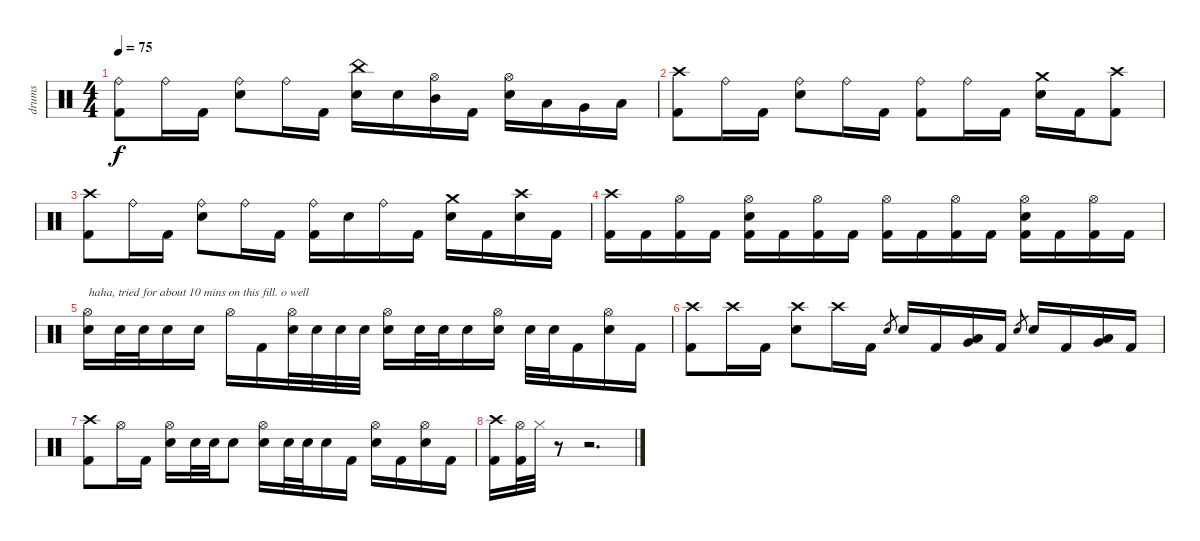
\track ("drums" "drums") {instrument percussion}
\staff {score}
\articulation defaults
\ts (4 4)
\tempo 75
\clef neutral
\ks c
("Ride (bell)" "Kick (hit) 2").8{dy f} "Ride (bell)".16 "Kick (hit) 2".16 ("Ride (bell)" "Electric Snare (hit)").8 "Ride (bell)".16 "Kick (hit) 2".16 ("China (hit)" "Electric Snare (hit)").16 "Electric Snare (hit)".16 ("Hi-Hat (open)" "Mid Tom (hit)").16 "Kick (hit) 2".16 ("Hi-Hat (open)" "Electric Snare (hit)").16 "Low Tom (hit)".16 "Very Low Tom (hit)".16 "Low Floor Tom (hit)".16 |
("Crash high (hit)" "Kick (hit) 2").8 "Ride (bell)".16 "Kick (hit) 2".16 ("Ride (bell)" "Electric Snare (hit)").8 "Ride (bell)".16 "Kick (hit) 2".16 ("Ride (bell)" "Kick (hit) 2").8 "Ride (bell)".16 "Kick (hit) 2".16 ("Crash medium (hit)" "Electric Snare (hit)").16 "Kick (hit) 2".16 ("Crash high (hit)" "Kick (hit) 2").8 |
("Crash high (hit)" "Kick (hit) 2").8 "Ride (bell)".16 "Kick (hit) 2".16 ("Ride (bell)" "Electric Snare (hit)").8 "Ride (bell)".16 "Kick (hit) 2".16 ("Ride (bell)" "Kick (hit) 2").16 "Electric Snare (hit)".16 "Ride (bell)".16 "Kick (hit) 2".16 ("Crash medium (hit)" "Electric Snare (hit)").16 "Kick (hit) 2".16 ("Crash high (hit)" "Electric Snare (hit)").16 "Kick (hit) 2".16 |
("Crash high (hit)" "Kick (hit) 2").16 "Kick (hit) 2".16 ("Hi-Hat (open)" "Kick (hit) 2").16 "Kick (hit) 2".16 ("Hi-Hat (open)" "Electric Snare (hit)" "Kick (hit) 2").16 "Kick (hit) 2".16 ("Hi-Hat (open)" "Kick (hit) 2").16 "Kick (hit) 2".16 ("Hi-Hat (open)" "Kick (hit) 2").16 "Kick (hit) 2".16 ("Hi-Hat (open)" "Kick (hit) 2").16 "Kick (hit) 2".16 ("Hi-Hat (open)" "Electric Snare (hit)" "Kick (hit) 2").16 "Kick (hit) 2".16 ("Hi-Hat (open)" "Kick (hit) 2").16 "Kick (hit) 2".16 |
("Hi-Hat (open)" "Electric Snare (hit)").16{txt "haha, tried for about 10 mins on this fill. o well"} "Electric Snare (hit)".32 "Electric Snare (hit)".32 "Electric Snare (hit)".16 "Electric Snare (hit)".16 "Hi-Hat (open)".16 "Kick (hit) 2".16 ("Hi-Hat (open)" "Electric Snare (hit)").32 "Electric Snare (hit)".32 "Electric Snare (hit)".32 "Electric Snare (hit)".32 ("Hi-Hat (open)" "Electric Snare (hit)").16 "Electric Snare (hit)".32 "Electric Snare (hit)".32 "Electric Snare (hit)".16 ("Hi-Hat (open)" "Electric Snare (hit)").16 "Electric Snare (hit)".32 "Electric Snare (hit)".32 "Kick (hit) 2".16 ("Hi-Hat (open)" "Electric Snare (hit)").16 "Kick (hit) 2".16 |
("Crash high (hit)" "Kick (hit) 2").8 "Crash high (hit)".16 "Kick (hit) 2".16 ("Crash high (hit)" "Electric Snare (hit)").8 "Crash high (hit)".16 "Kick (hit) 2".16 "Electric Snare (hit)".8{gr} "Electric Snare (hit)".16 "Kick (hit) 2".16 ("Low Tom (hit)" "Very Low Tom (hit)").16 "Kick (hit) 2".16 "Electric Snare (hit)".8{gr} "Electric Snare (hit)".16 "Kick (hit) 2".16 ("Very Low Tom (hit)" "Low Floor Tom (hit)").16 "Kick (hit) 2".16 |
("Crash high (hit)" "Kick (hit) 2").8 "Hi-Hat (open)".16 "Kick (hit) 2".16 ("Hi-Hat (open)" "Electric Snare (hit)").16 "Electric Snare (hit)".32 "Electric Snare (hit)".32 "Electric Snare (hit)".8 ("Hi-Hat (open)" "Electric Snare (hit)").16 "Electric Snare (hit)".32 "Electric Snare (hit)".32 "Electric Snare (hit)".16 "Kick (hit) 2".16 ("Hi-Hat (open)" "Electric Snare (hit)").16 "Kick (hit) 2".16 ("Hi-Hat (open)" "Electric Snare (hit)").16 "Kick (hit) 2".16 |
("Crash high (hit)" "Kick (hit) 2").16 ("Hi-Hat (open)" "Kick (hit) 2").32 "Hi-Hat (closed)".32 r.8 r.2{d}
